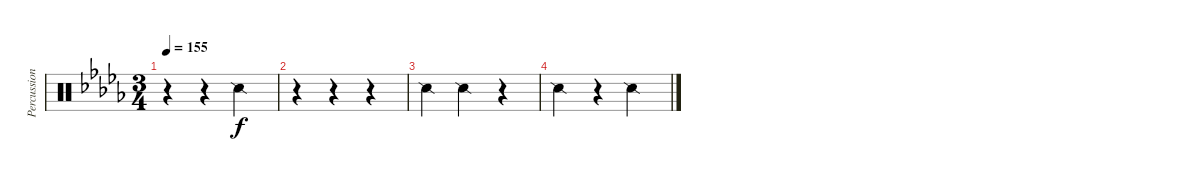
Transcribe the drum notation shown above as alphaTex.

\track ("Percussion" "Percussion") {instrument percussion}
\staff {score}
\articulation defaults
\ts (3 4)
\tempo 155
\clef neutral
\ks db
r.4{dy f} r.4 "Snare (side stick) 2".4 |
r.4 r.4 r.4 |
"Snare (side stick) 2".4 "Snare (side stick) 2".4 r.4 |
"Snare (side stick) 2".4 r.4 "Snare (side stick) 2".4
